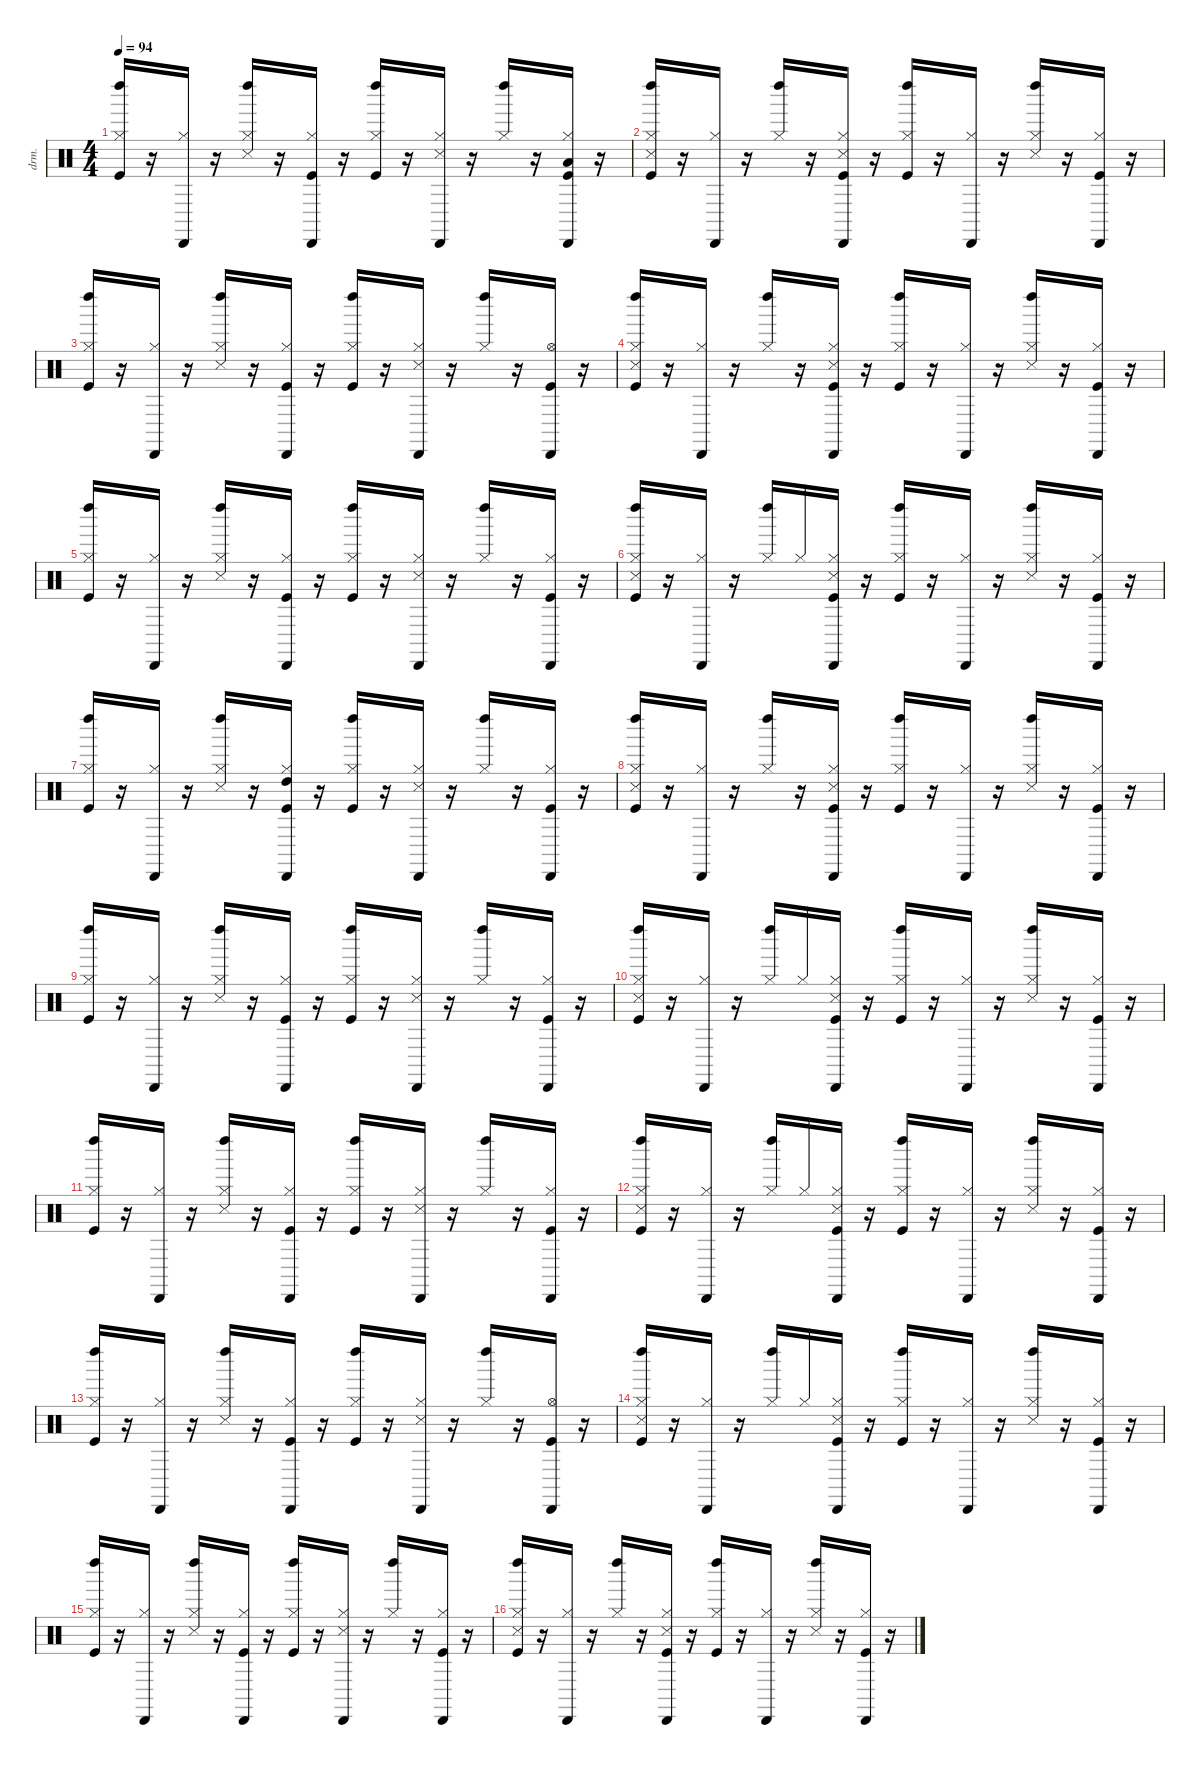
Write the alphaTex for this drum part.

\defaultSystemsLayout 4
\hideDynamics
\bracketExtendMode nobrackets
\otherSystemsTrackNameOrientation horizontal
\track ("Drums" "drm.") {instrument percussion}
\staff {score}
\articulation defaults
\ts (4 4)
\tempo 94
\clef neutral
\ks c
("Left Maraca (hit)" "Hi-Hat (closed)" "Kick (hit)").16{dy mf beam Up} r.16{beam Up} ("Cabasa (hit)" "Hi-Hat (closed)").16{dy p beam Up} r.16{beam Up} ("Left Maraca (hit)" "Hi-Hat (closed)" "Snare (side stick) 3").16{dy mf beam Up} r.16{beam Up} ("Cabasa (hit)" "Hi-Hat (closed)" "Kick (hit)").16{dy p beam Up} r.16{beam Up} ("Left Maraca (hit)" "Hi-Hat (closed)" "Kick (hit)").16{dy mf beam Up} r.16{beam Up} ("Cabasa (hit)" "Hi-Hat (closed)" "Snare (side stick) 3").16{dy p beam Up} r.16{beam Up} ("Left Maraca (hit)" "Hi-Hat (closed)").16{dy mf beam Up} r.16{beam Up} ("Cabasa (hit)" "Low Tom (hit)" "Hi-Hat (closed)" "Kick (hit)").16{dy p beam Up} r.16{beam Up} |
("Left Maraca (hit)" "Hi-Hat (closed)" "Snare (side stick) 3" "Kick (hit)").16{dy mf beam Up} r.16{beam Up} ("Cabasa (hit)" "Hi-Hat (closed)").16{dy p beam Up} r.16{beam Up} ("Left Maraca (hit)" "Hi-Hat (closed)").16{dy mf beam Up} r.16{beam Up} ("Cabasa (hit)" "Hi-Hat (closed)" "Snare (side stick) 3" "Kick (hit)").16{dy p beam Up} r.16{beam Up} ("Left Maraca (hit)" "Hi-Hat (closed)" "Kick (hit)").16{dy mf beam Up} r.16{beam Up} ("Cabasa (hit)" "Hi-Hat (closed)").16{dy p beam Up} r.16{beam Up} ("Left Maraca (hit)" "Hi-Hat (closed)" "Snare (side stick) 3").16{dy mf beam Up} r.16{beam Up} ("Cabasa (hit)" "Hi-Hat (closed)" "Kick (hit)").16{dy p beam Up} r.16{beam Up} |
("Left Maraca (hit)" "Hi-Hat (closed)" "Kick (hit)").16{dy mf beam Up} r.16{beam Up} ("Cabasa (hit)" "Hi-Hat (closed)").16{dy p beam Up} r.16{beam Up} ("Left Maraca (hit)" "Hi-Hat (closed)" "Snare (side stick) 3").16{dy mf beam Up} r.16{beam Up} ("Cabasa (hit)" "Hi-Hat (closed)" "Kick (hit)").16{dy p beam Up} r.16{beam Up} ("Left Maraca (hit)" "Hi-Hat (closed)" "Kick (hit)").16{dy mf beam Up} r.16{beam Up} ("Cabasa (hit)" "Hi-Hat (closed)" "Snare (side stick) 3").16{dy p beam Up} r.16{beam Up} ("Left Maraca (hit)" "Hi-Hat (closed)").16{dy mf beam Up} r.16{beam Up} ("Cabasa (hit)" "Hi-Hat (open)" "Kick (hit)").16{dy p beam Up} r.16{beam Up} |
("Left Maraca (hit)" "Hi-Hat (closed)" "Snare (side stick) 3" "Kick (hit)").16{dy mf beam Up} r.16{beam Up} ("Cabasa (hit)" "Hi-Hat (closed)").16{dy p beam Up} r.16{beam Up} ("Left Maraca (hit)" "Hi-Hat (closed)").16{dy mf beam Up} r.16{beam Up} ("Cabasa (hit)" "Hi-Hat (closed)" "Snare (side stick) 3" "Kick (hit)").16{dy p beam Up} r.16{beam Up} ("Left Maraca (hit)" "Hi-Hat (closed)" "Kick (hit)").16{dy mf beam Up} r.16{beam Up} ("Cabasa (hit)" "Hi-Hat (closed)").16{dy p beam Up} r.16{beam Up} ("Left Maraca (hit)" "Hi-Hat (closed)" "Snare (side stick) 3").16{dy mf beam Up} r.16{beam Up} ("Cabasa (hit)" "Hi-Hat (closed)" "Kick (hit)").16{dy p beam Up} r.16{beam Up} |
("Left Maraca (hit)" "Hi-Hat (closed)" "Kick (hit)").16{dy mf beam Up} r.16{beam Up} ("Cabasa (hit)" "Hi-Hat (closed)").16{dy p beam Up} r.16{beam Up} ("Left Maraca (hit)" "Hi-Hat (closed)" "Snare (side stick) 3").16{dy mf beam Up} r.16{beam Up} ("Cabasa (hit)" "Hi-Hat (closed)" "Kick (hit)").16{dy p beam Up} r.16{beam Up} ("Left Maraca (hit)" "Hi-Hat (closed)" "Kick (hit)").16{dy mf beam Up} r.16{beam Up} ("Cabasa (hit)" "Hi-Hat (closed)" "Snare (side stick) 3").16{dy p beam Up} r.16{beam Up} ("Left Maraca (hit)" "Hi-Hat (closed)").16{dy mf beam Up} r.16{beam Up} ("Cabasa (hit)" "Hi-Hat (closed)" "Kick (hit)").16{dy p beam Up} r.16{beam Up} |
("Left Maraca (hit)" "Hi-Hat (closed)" "Snare (side stick) 3" "Kick (hit)").16{dy mf beam Up} r.16{beam Up} ("Cabasa (hit)" "Hi-Hat (closed)").16{dy p beam Up} r.16{beam Up} ("Left Maraca (hit)" "Hi-Hat (closed)").16{dy mf beam Up} "Hi-Hat (closed)".16{beam Up} ("Cabasa (hit)" "Hi-Hat (closed)" "Snare (side stick) 3" "Kick (hit)").16{dy p beam Up} r.16{beam Up} ("Left Maraca (hit)" "Hi-Hat (closed)" "Kick (hit)").16{dy mf beam Up} r.16{beam Up} ("Cabasa (hit)" "Hi-Hat (closed)").16{dy p beam Up} r.16{beam Up} ("Left Maraca (hit)" "Hi-Hat (closed)" "Snare (side stick) 3").16{dy mf beam Up} r.16{beam Up} ("Cabasa (hit)" "Hi-Hat (closed)" "Kick (hit)").16{dy p beam Up} r.16{beam Up} |
("Left Maraca (hit)" "Hi-Hat (closed)" "Kick (hit)").16{dy mf beam Up} r.16{beam Up} ("Cabasa (hit)" "Hi-Hat (closed)").16{dy p beam Up} r.16{beam Up} ("Left Maraca (hit)" "Hi-Hat (closed)" "Snare (side stick) 3").16{dy mf beam Up} r.16{beam Up} ("Cabasa (hit)" "High Tom (hit)" "Hi-Hat (closed)" "Kick (hit)").16{dy p beam Up} r.16{beam Up} ("Left Maraca (hit)" "Hi-Hat (closed)" "Kick (hit)").16{dy mf beam Up} r.16{beam Up} ("Cabasa (hit)" "Hi-Hat (closed)" "Snare (side stick) 3").16{dy p beam Up} r.16{beam Up} ("Left Maraca (hit)" "Hi-Hat (closed)").16{dy mf beam Up} r.16{beam Up} ("Cabasa (hit)" "Hi-Hat (closed)" "Kick (hit)").16{dy p beam Up} r.16{beam Up} |
("Left Maraca (hit)" "Hi-Hat (closed)" "Snare (side stick) 3" "Kick (hit)").16{dy mf beam Up} r.16{beam Up} ("Cabasa (hit)" "Hi-Hat (closed)").16{dy p beam Up} r.16{beam Up} ("Left Maraca (hit)" "Hi-Hat (closed)").16{dy mf beam Up} r.16{beam Up} ("Cabasa (hit)" "Hi-Hat (closed)" "Snare (side stick) 3" "Kick (hit)").16{dy p beam Up} r.16{beam Up} ("Left Maraca (hit)" "Hi-Hat (closed)" "Kick (hit)").16{dy mf beam Up} r.16{beam Up} ("Cabasa (hit)" "Hi-Hat (closed)").16{dy p beam Up} r.16{beam Up} ("Left Maraca (hit)" "Hi-Hat (closed)" "Snare (side stick) 3").16{dy mf beam Up} r.16{beam Up} ("Cabasa (hit)" "Hi-Hat (closed)" "Kick (hit)").16{dy p beam Up} r.16{beam Up} |
("Left Maraca (hit)" "Hi-Hat (closed)" "Kick (hit)").16{dy mf beam Up} r.16{beam Up} ("Cabasa (hit)" "Hi-Hat (closed)").16{dy p beam Up} r.16{beam Up} ("Left Maraca (hit)" "Hi-Hat (closed)" "Snare (side stick) 3").16{dy mf beam Up} r.16{beam Up} ("Cabasa (hit)" "Hi-Hat (closed)" "Kick (hit)").16{dy p beam Up} r.16{beam Up} ("Left Maraca (hit)" "Hi-Hat (closed)" "Kick (hit)").16{dy mf beam Up} r.16{beam Up} ("Cabasa (hit)" "Hi-Hat (closed)" "Snare (side stick) 3").16{dy p beam Up} r.16{beam Up} ("Left Maraca (hit)" "Hi-Hat (closed)").16{dy mf beam Up} r.16{beam Up} ("Cabasa (hit)" "Hi-Hat (closed)" "Kick (hit)").16{dy p beam Up} r.16{beam Up} |
("Left Maraca (hit)" "Hi-Hat (closed)" "Snare (side stick) 3" "Kick (hit)").16{dy mf beam Up} r.16{beam Up} ("Cabasa (hit)" "Hi-Hat (closed)").16{dy p beam Up} r.16{beam Up} ("Left Maraca (hit)" "Hi-Hat (closed)").16{dy mf beam Up} "Hi-Hat (closed)".16{beam Up} ("Cabasa (hit)" "Hi-Hat (closed)" "Snare (side stick) 3" "Kick (hit)").16{dy p beam Up} r.16{beam Up} ("Left Maraca (hit)" "Hi-Hat (closed)" "Kick (hit)").16{dy mf beam Up} r.16{beam Up} ("Cabasa (hit)" "Hi-Hat (closed)").16{dy p beam Up} r.16{beam Up} ("Left Maraca (hit)" "Hi-Hat (closed)" "Snare (side stick) 3").16{dy mf beam Up} r.16{beam Up} ("Cabasa (hit)" "Hi-Hat (closed)" "Kick (hit)").16{dy p beam Up} r.16{beam Up} |
("Left Maraca (hit)" "Hi-Hat (closed)" "Kick (hit)").16{dy mf beam Up} r.16{beam Up} ("Cabasa (hit)" "Hi-Hat (closed)").16{dy p beam Up} r.16{beam Up} ("Left Maraca (hit)" "Hi-Hat (closed)" "Snare (side stick) 3").16{dy mf beam Up} r.16{beam Up} ("Cabasa (hit)" "Hi-Hat (closed)" "Kick (hit)").16{dy p beam Up} r.16{beam Up} ("Left Maraca (hit)" "Hi-Hat (closed)" "Kick (hit)").16{dy mf beam Up} r.16{beam Up} ("Cabasa (hit)" "Hi-Hat (closed)" "Snare (side stick) 3").16{dy p beam Up} r.16{beam Up} ("Left Maraca (hit)" "Hi-Hat (closed)").16{dy mf beam Up} r.16{beam Up} ("Cabasa (hit)" "Hi-Hat (closed)" "Kick (hit)").16{dy p beam Up} r.16{beam Up} |
("Left Maraca (hit)" "Hi-Hat (closed)" "Snare (side stick) 3" "Kick (hit)").16{dy mf beam Up} r.16{beam Up} ("Cabasa (hit)" "Hi-Hat (closed)").16{dy p beam Up} r.16{beam Up} ("Left Maraca (hit)" "Hi-Hat (closed)").16{dy mf beam Up} "Hi-Hat (closed)".16{beam Up} ("Cabasa (hit)" "Hi-Hat (closed)" "Snare (side stick) 3" "Kick (hit)").16{dy p beam Up} r.16{beam Up} ("Left Maraca (hit)" "Hi-Hat (closed)" "Kick (hit)").16{dy mf beam Up} r.16{beam Up} ("Cabasa (hit)" "Hi-Hat (closed)").16{dy p beam Up} r.16{beam Up} ("Left Maraca (hit)" "Hi-Hat (closed)" "Snare (side stick) 3").16{dy mf beam Up} r.16{beam Up} ("Cabasa (hit)" "Hi-Hat (closed)" "Kick (hit)").16{dy p beam Up} r.16{beam Up} |
("Left Maraca (hit)" "Hi-Hat (closed)" "Kick (hit)").16{dy mf beam Up} r.16{beam Up} ("Cabasa (hit)" "Hi-Hat (closed)").16{dy p beam Up} r.16{beam Up} ("Left Maraca (hit)" "Hi-Hat (closed)" "Snare (side stick) 3").16{dy mf beam Up} r.16{beam Up} ("Cabasa (hit)" "Hi-Hat (closed)" "Kick (hit)").16{dy p beam Up} r.16{beam Up} ("Left Maraca (hit)" "Hi-Hat (closed)" "Kick (hit)").16{dy mf beam Up} r.16{beam Up} ("Cabasa (hit)" "Hi-Hat (closed)" "Snare (side stick) 3").16{dy p beam Up} r.16{beam Up} ("Left Maraca (hit)" "Hi-Hat (closed)").16{dy mf beam Up} r.16{beam Up} ("Cabasa (hit)" "Hi-Hat (open)" "Kick (hit)").16{dy p beam Up} r.16{beam Up} |
("Left Maraca (hit)" "Hi-Hat (closed)" "Snare (side stick) 3" "Kick (hit)").16{dy mf beam Up} r.16{beam Up} ("Cabasa (hit)" "Hi-Hat (closed)").16{dy p beam Up} r.16{beam Up} ("Left Maraca (hit)" "Hi-Hat (closed)").16{dy mf beam Up} "Hi-Hat (closed)".16{beam Up} ("Cabasa (hit)" "Hi-Hat (closed)" "Snare (side stick) 3" "Kick (hit)").16{dy p beam Up} r.16{beam Up} ("Left Maraca (hit)" "Hi-Hat (closed)" "Kick (hit)").16{dy mf beam Up} r.16{beam Up} ("Cabasa (hit)" "Hi-Hat (closed)").16{dy p beam Up} r.16{beam Up} ("Left Maraca (hit)" "Hi-Hat (closed)" "Snare (side stick) 3").16{dy mf beam Up} r.16{beam Up} ("Cabasa (hit)" "Hi-Hat (closed)" "Kick (hit)").16{dy p beam Up} r.16{beam Up} |
("Left Maraca (hit)" "Hi-Hat (closed)" "Kick (hit)").16{dy mf beam Up} r.16{beam Up} ("Cabasa (hit)" "Hi-Hat (closed)").16{dy p beam Up} r.16{beam Up} ("Left Maraca (hit)" "Hi-Hat (closed)" "Snare (side stick) 3").16{dy mf beam Up} r.16{beam Up} ("Cabasa (hit)" "Hi-Hat (closed)" "Kick (hit)").16{dy p beam Up} r.16{beam Up} ("Left Maraca (hit)" "Hi-Hat (closed)" "Kick (hit)").16{dy mf beam Up} r.16{beam Up} ("Cabasa (hit)" "Hi-Hat (closed)" "Snare (side stick) 3").16{dy p beam Up} r.16{beam Up} ("Left Maraca (hit)" "Hi-Hat (closed)").16{dy mf beam Up} r.16{beam Up} ("Cabasa (hit)" "Hi-Hat (closed)" "Kick (hit)").16{dy p beam Up} r.16{beam Up} |
("Left Maraca (hit)" "Hi-Hat (closed)" "Snare (side stick) 3" "Kick (hit)").16{dy mf beam Up} r.16{beam Up} ("Cabasa (hit)" "Hi-Hat (closed)").16{dy p beam Up} r.16{beam Up} ("Left Maraca (hit)" "Hi-Hat (closed)").16{dy mf beam Up} r.16{beam Up} ("Cabasa (hit)" "Hi-Hat (closed)" "Snare (side stick) 3" "Kick (hit)").16{dy p beam Up} r.16{beam Up} ("Left Maraca (hit)" "Hi-Hat (closed)" "Kick (hit)").16{dy mf beam Up} r.16{beam Up} ("Cabasa (hit)" "Hi-Hat (closed)").16{dy p beam Up} r.16{beam Up} ("Left Maraca (hit)" "Hi-Hat (closed)" "Snare (side stick) 3").16{dy mf beam Up} r.16{beam Up} ("Cabasa (hit)" "Hi-Hat (closed)" "Kick (hit)").16{dy p beam Up} r.16{beam Up}
